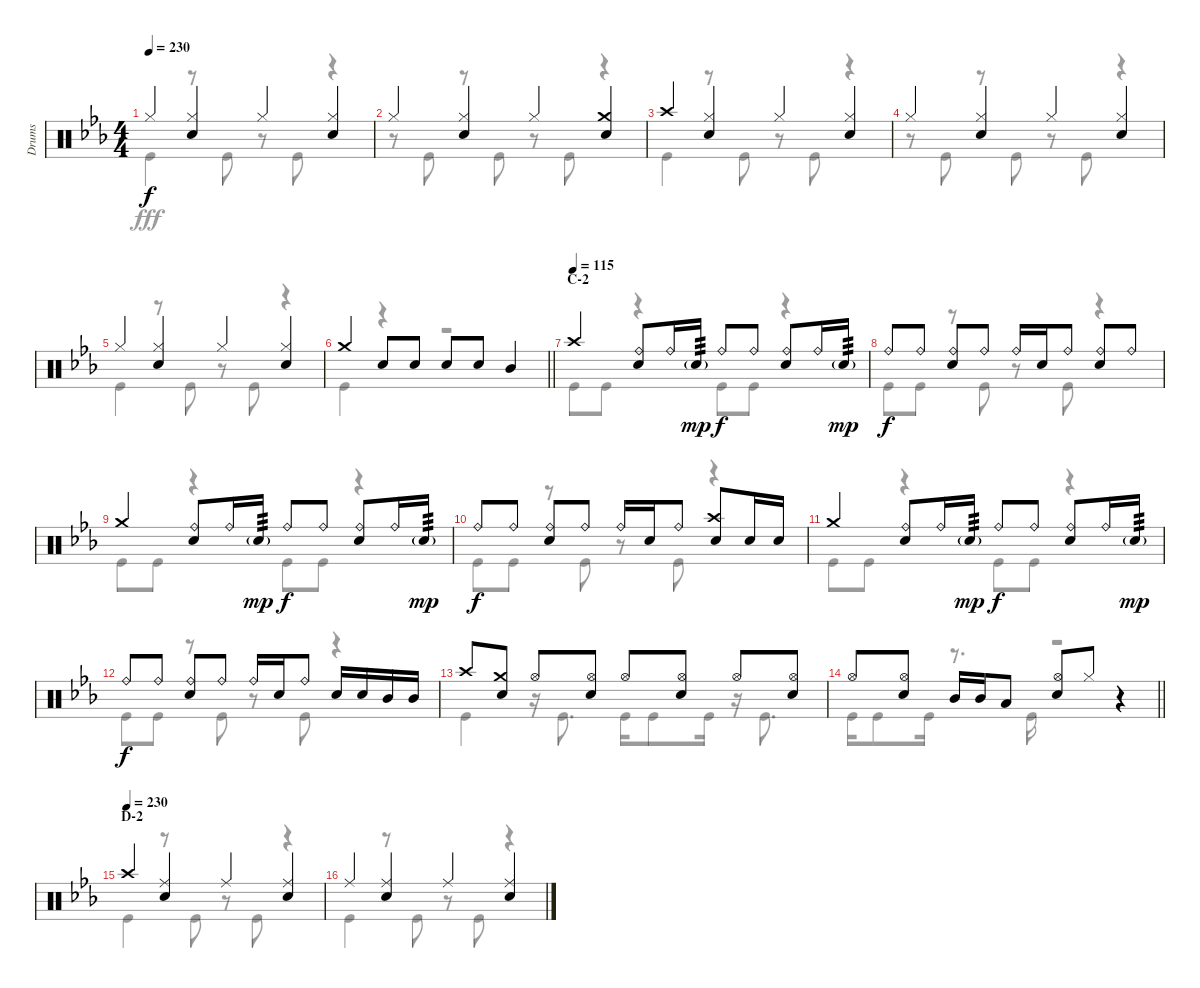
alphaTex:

\track ("Drums" "Drums") {instrument percussion}
\staff {score}
\articulation defaults
\voice
\ts (4 4)
\tempo 230
\clef neutral
\ks eb "Hi-Hat (closed)".4{dy f}
("Hi-Hat (closed)" "Snare (hit) 2").4 "Hi-Hat (closed)".4 ("Hi-Hat (closed)" "Snare (hit) 2").4 |
"Hi-Hat (closed)".4 ("Hi-Hat (closed)" "Snare (hit) 2").4 "Hi-Hat (closed)".4 ("Crash medium (hit)" "Snare (hit) 2").4 |
"Crash high (hit)".4 ("Hi-Hat (closed)" "Snare (hit) 2").4 "Hi-Hat (closed)".4 ("Hi-Hat (closed)" "Snare (hit) 2").4 |
"Hi-Hat (closed)".4 ("Hi-Hat (closed)" "Snare (hit) 2").4 "Hi-Hat (closed)".4 ("Hi-Hat (closed)" "Snare (hit) 2").4 |
"Hi-Hat (closed)".4 ("Hi-Hat (closed)" "Snare (hit) 2").4 "Hi-Hat (closed)".4 ("Hi-Hat (closed)" "Snare (hit) 2").4 |
\barLineRight lightlight "Crash medium (hit)".4 "Snare (hit) 2".8 "Snare (hit) 2".8 "Snare (hit) 2".8 "Snare (hit) 2".8 "Mid Tom (hit)".4
|
\section ("" "C-2")
\tempo (115)
"Crash high (hit)".4 ("Ride (bell)" "Snare (hit) 2").8 "Ride (bell)".16 "Snare (hit) 2"{g}.16{tp 3 dy mp} "Ride (bell)".8{dy f} "Ride (bell)".8 ("Ride (bell)" "Snare (hit) 2").8 "Ride (bell)".16 "Snare (hit) 2"{g}.16{tp 3 dy mp} |
"Ride (bell)".8{dy f} "Ride (bell)".8 ("Ride (bell)" "Snare (hit) 2").8 "Ride (bell)".8 "Ride (bell)".16 "Snare (hit) 2".16 "Ride (bell)".8 ("Ride (bell)" "Snare (hit) 2").8 "Ride (bell)".8 |
"Crash medium (hit)".4 ("Ride (bell)" "Snare (hit) 2").8 "Ride (bell)".16 "Snare (hit) 2"{g}.16{tp 3 dy mp} "Ride (bell)".8{dy f} "Ride (bell)".8 ("Ride (bell)" "Snare (hit) 2").8 "Ride (bell)".16 "Snare (hit) 2"{g}.16{tp 3 dy mp} |
"Ride (bell)".8{dy f} "Ride (bell)".8 ("Ride (bell)" "Snare (hit) 2").8 "Ride (bell)".8 "Ride (bell)".16 "Snare (hit) 2".16 "Ride (bell)".8 ("Crash high (hit)" "Snare (hit) 2").8 "Snare (hit) 2".16 "Snare (hit) 2".16 |
"Crash medium (hit)".4 ("Ride (bell)" "Snare (hit) 2").8 "Ride (bell)".16 "Snare (hit) 2"{g}.16{tp 3 dy mp} "Ride (bell)".8{dy f} "Ride (bell)".8 ("Ride (bell)" "Snare (hit) 2").8 "Ride (bell)".16 "Snare (hit) 2"{g}.16{tp 3 dy mp} |
"Ride (bell)".8{dy f} "Ride (bell)".8 ("Ride (bell)" "Snare (hit) 2").8 "Ride (bell)".8 "Ride (bell)".16 "Snare (hit) 2".16 "Ride (bell)".8 "Snare (hit) 2".16 "Snare (hit) 2".16 "Mid Tom (hit)".16 "Mid Tom (hit)".16 |
"Crash high (hit)".8 ("Crash medium (hit)" "Snare (hit) 2").8 "Hi-Hat (open)".8 ("Hi-Hat (open)" "Snare (hit) 2").8 "Hi-Hat (open)".8 ("Hi-Hat (open)" "Snare (hit) 2").8 "Hi-Hat (open)".8 ("Hi-Hat (open)" "Snare (hit) 2").8 |
\barLineRight lightlight "Hi-Hat (open)".8
("Hi-Hat (open)" "Snare (hit) 2").8 "Mid Tom (hit)".16 "Mid Tom (hit)".16 "Low Tom (hit)".8 ("Hi-Hat (open)" "Snare (hit) 2").8 "Hi-Hat (closed)".8 r.4 |
\section ("" "D-2")
\tempo (230)
"Crash high (hit)".4 ("Ride (middle)" "Snare (hit) 2").4 "Ride (middle)".4 ("Ride (middle)" "Snare (hit) 2").4 |
"Ride (middle)".4 ("Ride (middle)" "Snare (hit) 2").4 "Ride (middle)".4 ("Ride (middle)" "Snare (hit) 2").4
\voice
\clef neutral
\ottava regular
\simile none
\ks eb "Kick (hit)".4{dy fff}
r.8 "Kick (hit)".8 r.8 "Kick (hit)".8 r.4 |
r.8 "Kick (hit)".8 r.8 "Kick (hit)".8 r.8 "Kick (hit)".8 r.4 |
"Kick (hit)".4 r.8 "Kick (hit)".8 r.8 "Kick (hit)".8 r.4 |
r.8 "Kick (hit)".8 r.8 "Kick (hit)".8 r.8 "Kick (hit)".8 r.4 |
"Kick (hit)".4 r.8 "Kick (hit)".8 r.8 "Kick (hit)".8 r.4 |
\barLineRight lightlight "Kick (hit)".4
r.4 r.2 |
"Kick (hit)".8 "Kick (hit)".8 r.4 "Kick (hit)".8 "Kick (hit)".8 r.4 |
"Kick (hit)".8 "Kick (hit)".8 r.8 "Kick (hit)".8 r.8 "Kick (hit)".8 r.4 |
"Kick (hit)".8 "Kick (hit)".8 r.4 "Kick (hit)".8 "Kick (hit)".8 r.4 |
"Kick (hit)".8 "Kick (hit)".8 r.8 "Kick (hit)".8 r.8 "Kick (hit)".8 r.4 |
"Kick (hit)".8 "Kick (hit)".8 r.4 "Kick (hit)".8 "Kick (hit)".8 r.4 |
"Kick (hit)".8 "Kick (hit)".8 r.8 "Kick (hit)".8 r.8 "Kick (hit)".8 r.4 |
"Kick (hit)".4 r.16 "Kick (hit)".8{d} "Kick (hit)".16 "Kick (hit)".8 "Kick (hit)".16 r.16 "Kick (hit)".8{d} |
\barLineRight lightlight "Kick (hit)".16 "Kick (hit)".8 "Kick (hit)".16
r.8{d} "Kick (hit)".16 r.2 |
"Kick (hit)".4 r.8 "Kick (hit)".8 r.8 "Kick (hit)".8 r.4 |
"Kick (hit)".4 r.8 "Kick (hit)".8 r.8 "Kick (hit)".8 r.4
